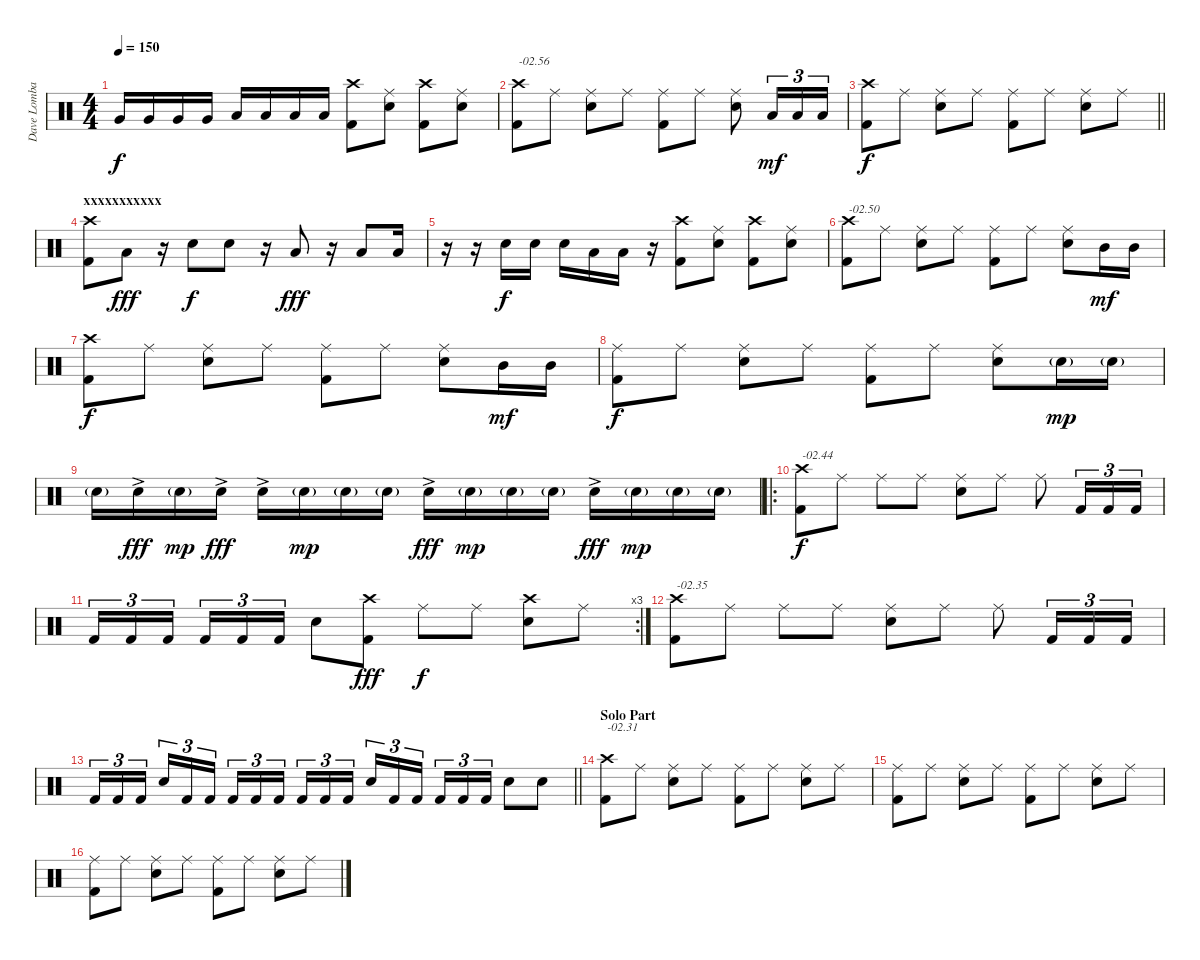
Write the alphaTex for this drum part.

\track ("Dave Lombardo (Drums)" "Dave Lomba") {instrument percussion}
\staff {score}
\articulation defaults
\ts (4 4)
\tempo 150
\clef neutral
\ks c "Very Low Tom (hit)".16{dy f} "Very Low Tom (hit)".16 "Very Low Tom (hit)".16 "Very Low Tom (hit)".16 "Low Floor Tom (hit)".16 "Low Floor Tom (hit)".16 "Low Floor Tom (hit)".16 "Low Floor Tom (hit)".16
("Crash high (hit)" "Kick (hit) 2").8 ("Ride (middle)" "Electric Snare (hit)").8 ("Crash high (hit)" "Kick (hit) 2").8 ("Ride (middle)" "Electric Snare (hit)").8 |
("Crash high (hit)" "Kick (hit) 2").8{txt "-02.56"} "Ride (middle)".8 ("Ride (middle)" "Electric Snare (hit)").8 "Ride (middle)".8 ("Ride (middle)" "Kick (hit) 2").8 "Ride (middle)".8 ("Ride (middle)" "Electric Snare (hit)").8 "Low Tom (hit)".16{tu (3 2) dy mf} "Low Tom (hit)".16{tu (3 2)} "Low Tom (hit)".16{tu (3 2)} |
\barLineRight lightlight
("Crash high (hit)" "Kick (hit) 2").8{dy f} "Ride (middle)".8 ("Ride (middle)" "Electric Snare (hit)").8 "Ride (middle)".8 ("Ride (middle)" "Kick (hit) 2").8 "Ride (middle)".8 ("Ride (middle)" "Electric Snare (hit)").8 "Ride (middle)".8 |
\section ("" "xxxxxxxxxxx")
("Crash high (hit)" "Kick (hit) 2").8 "Low Tom (hit)".8{dy fff} r.16 "Electric Snare (hit)".8{dy f} "Electric Snare (hit)".8 r.16 "Low Tom (hit)".8{dy fff} r.16 "Low Tom (hit)".8 "Low Tom (hit)".16 |
r.16 r.16 "Electric Snare (hit)".16{dy f} "Electric Snare (hit)".16 "Electric Snare (hit)".16 "Low Tom (hit)".16 "Low Tom (hit)".16 r.16 ("Crash high (hit)" "Kick (hit) 2").8 ("Ride (middle)" "Electric Snare (hit)").8 ("Crash high (hit)" "Kick (hit) 2").8 ("Ride (middle)" "Electric Snare (hit)").8 |
("Crash high (hit)" "Kick (hit) 2").8{txt "-02.50"} "Ride (middle)".8 ("Ride (middle)" "Electric Snare (hit)").8 "Ride (middle)".8 ("Ride (middle)" "Kick (hit) 2").8 "Ride (middle)".8 ("Ride (middle)" "Electric Snare (hit)").8 "Mid Tom (hit)".16{dy mf} "Mid Tom (hit)".16 |
("Crash high (hit)" "Kick (hit) 2").8{dy f} "Ride (middle)".8 ("Ride (middle)" "Electric Snare (hit)").8 "Ride (middle)".8 ("Ride (middle)" "Kick (hit) 2").8 "Ride (middle)".8 ("Ride (middle)" "Electric Snare (hit)").8 "Mid Tom (hit)".16{dy mf} "Mid Tom (hit)".16 |
("Ride (middle)" "Kick (hit) 2").8{dy f} "Ride (middle)".8 ("Ride (middle)" "Electric Snare (hit)").8 "Ride (middle)".8 ("Ride (middle)" "Kick (hit) 2").8 "Ride (middle)".8 ("Ride (middle)" "Electric Snare (hit)").8 "Electric Snare (hit)"{g}.16{dy mp} "Electric Snare (hit)"{g}.16 |
"Electric Snare (hit)"{g}.16 "Electric Snare (hit)"{ac}.16{dy fff} "Electric Snare (hit)"{g}.16{dy mp} "Electric Snare (hit)"{ac}.16{dy fff} "Electric Snare (hit)"{ac}.16 "Electric Snare (hit)"{g}.16{dy mp} "Electric Snare (hit)"{g}.16 "Electric Snare (hit)"{g}.16 "Electric Snare (hit)"{ac}.16{dy fff} "Electric Snare (hit)"{g}.16{dy mp} "Electric Snare (hit)"{g}.16 "Electric Snare (hit)"{g}.16 "Electric Snare (hit)"{ac}.16{dy fff} "Electric Snare (hit)"{g}.16{dy mp} "Electric Snare (hit)"{g}.16 "Electric Snare (hit)"{g}.16 |
\ro
("Crash high (hit)" "Kick (hit) 2").8{txt "-02.44" dy f} "Ride (middle)".8 "Ride (middle)".8 "Ride (middle)".8 ("Ride (middle)" "Electric Snare (hit)").8 "Ride (middle)".8 "Ride (middle)".8 "Kick (hit) 2".16{tu (3 2)} "Kick (hit) 2".16{tu (3 2)} "Kick (hit) 2".16{tu (3 2)} |
\rc 3 "Kick (hit) 2".16{tu (3 2)} "Kick (hit) 2".16{tu (3 2)} "Kick (hit) 2".16{tu (3 2) beam splitsecondary} "Kick (hit) 2".16{tu (3 2)} "Kick (hit) 2".16{tu (3 2)} "Kick (hit) 2".16{tu (3 2)} "Electric Snare (hit)".8
("Crash high (hit)" "Kick (hit) 2").8{dy fff} "Ride (middle)".8{dy f} "Ride (middle)".8 ("Crash high (hit)" "Electric Snare (hit)").8 "Ride (middle)".8 |
("Crash high (hit)" "Kick (hit) 2").8{txt "-02.35"} "Ride (middle)".8 "Ride (middle)".8 "Ride (middle)".8 ("Ride (middle)" "Electric Snare (hit)").8 "Ride (middle)".8 "Ride (middle)".8 "Kick (hit) 2".16{tu (3 2)} "Kick (hit) 2".16{tu (3 2)} "Kick (hit) 2".16{tu (3 2)} |
\barLineRight lightlight "Kick (hit) 2".16{tu (3 2)} "Kick (hit) 2".16{tu (3 2)} "Kick (hit) 2".16{tu (3 2) beam splitsecondary} "Electric Snare (hit)".16{tu (3 2)} "Kick (hit) 2".16{tu (3 2)} "Kick (hit) 2".16{tu (3 2)} "Kick (hit) 2".16{tu (3 2)} "Kick (hit) 2".16{tu (3 2)} "Kick (hit) 2".16{tu (3 2) beam splitsecondary} "Kick (hit) 2".16{tu (3 2)} "Kick (hit) 2".16{tu (3 2)} "Kick (hit) 2".16{tu (3 2)} "Electric Snare (hit)".16{tu (3 2)} "Kick (hit) 2".16{tu (3 2)} "Kick (hit) 2".16{tu (3 2) beam splitsecondary} "Kick (hit) 2".16{tu (3 2)} "Kick (hit) 2".16{tu (3 2)} "Kick (hit) 2".16{tu (3 2)} "Electric Snare (hit)".8 "Electric Snare (hit)".8
|
\section ("" "Solo Part")
("Crash high (hit)" "Kick (hit) 2").8{txt "-02.31"} "Ride (middle)".8 ("Ride (middle)" "Electric Snare (hit)").8 "Ride (middle)".8 ("Ride (middle)" "Kick (hit) 2").8 "Ride (middle)".8 ("Ride (middle)" "Electric Snare (hit)").8 "Ride (middle)".8 |
("Ride (middle)" "Kick (hit) 2").8 "Ride (middle)".8 ("Ride (middle)" "Electric Snare (hit)").8 "Ride (middle)".8 ("Ride (middle)" "Kick (hit) 2").8 "Ride (middle)".8 ("Ride (middle)" "Electric Snare (hit)").8 "Ride (middle)".8 |
("Ride (middle)" "Kick (hit) 2").8 "Ride (middle)".8 ("Ride (middle)" "Electric Snare (hit)").8 "Ride (middle)".8 ("Ride (middle)" "Kick (hit) 2").8 "Ride (middle)".8 ("Ride (middle)" "Electric Snare (hit)").8 "Ride (middle)".8
